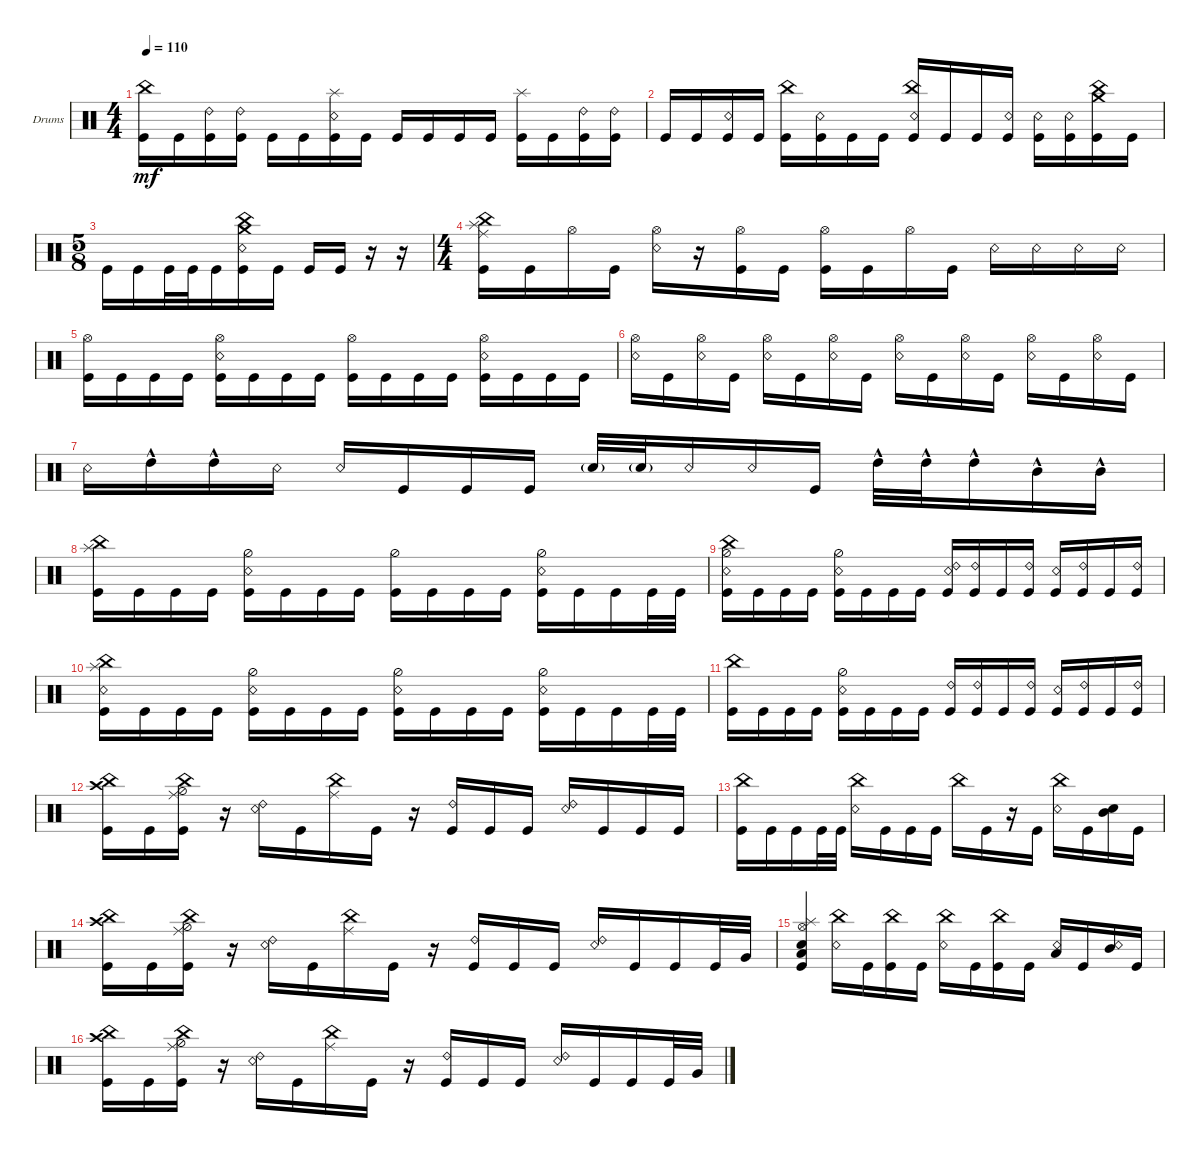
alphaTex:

\defaultSystemsLayout 4
\bracketExtendMode groupsimilarinstruments
\firstSystemTrackNameOrientation horizontal
\otherSystemsTrackNameOrientation horizontal
\track ("Drumkit" "Drums") {instrument percussion}
\staff {score}
\articulation defaults
\ts (4 4)
\tempo 110
\clef neutral
\ks c
("Kick (hit)" "China (hit)").16{dy mf} "Kick (hit)".16 ("Kick (hit)" "Ride (bell) 2").16 ("Kick (hit)" "Ride (bell) 2").16 "Kick (hit)".16 "Kick (hit)".16 ("Kick (hit)" "Snare (rim shot)" "Splash (hit)").16 "Kick (hit)".16 "Kick (hit)".16 "Kick (hit)".16 "Kick (hit)".16 "Kick (hit)".16 ("Kick (hit)" "Splash (hit)").16 "Kick (hit)".16 ("Kick (hit)" "Ride (bell) 2").16 ("Kick (hit)" "Ride (bell) 2").16 |
"Kick (hit)".16 "Kick (hit)".16 ("Kick (hit)" "Snare (rim shot)").16 "Kick (hit)".16 ("Kick (hit)" "China (hit)").16 ("Kick (hit)" "Snare (rim shot)").16 "Kick (hit)".16 "Kick (hit)".16 ("Kick (hit)" "China (hit)" "Snare (rim shot)").16 "Kick (hit)".16 "Kick (hit)".16 ("Kick (hit)" "Snare (rim shot)").16 ("Kick (hit)" "Snare (rim shot)").16 ("Kick (hit)" "Snare (rim shot)").16 ("Kick (hit)" "China (hit)" "Crash medium (hit)").16 "Kick (hit)".16 |
\ts (5 8)
"Kick (hit)".16 "Kick (hit)".16 "Kick (hit)".32 "Kick (hit)".32 "Kick (hit)".16 ("Kick (hit)" "China (hit)" "Crash medium (hit)" "Snare (rim shot)").16 "Kick (hit)".16 "Kick (hit)".16 "Kick (hit)".16 r.16 r.16 |
\ts (4 4)
("Kick (hit)" "Splash (hit)" "China (hit)" "Ride (middle)").16 "Kick (hit)".16 "Hi-Hat (open)".16 "Kick (hit)".16 ("Snare (rim shot)" "Hi-Hat (open)").16 r.16 ("Kick (hit)" "Hi-Hat (open)").16 "Kick (hit)".16 ("Kick (hit)" "Hi-Hat (open)").16 "Kick (hit)".16 "Hi-Hat (open)".16 "Kick (hit)".16 "Snare (rim shot)".16 "Snare (rim shot)".16 "Snare (rim shot)".16 "Snare (rim shot)".16 |
("Kick (hit)" "Hi-Hat (open)").16 "Kick (hit)".16 "Kick (hit)".16 "Kick (hit)".16 ("Kick (hit)" "Snare (rim shot)" "Hi-Hat (open)").16 "Kick (hit)".16 "Kick (hit)".16 "Kick (hit)".16 ("Kick (hit)" "Hi-Hat (open)").16 "Kick (hit)".16 "Kick (hit)".16 "Kick (hit)".16 ("Kick (hit)" "Snare (rim shot)" "Hi-Hat (open)").16 "Kick (hit)".16 "Kick (hit)".16 "Kick (hit)".16 |
\scale
0.503467 ("Snare (rim shot)" "Hi-Hat (open)").16 "Kick (hit)".16 ("Snare (rim shot)" "Hi-Hat (open)").16 "Kick (hit)".16 ("Snare (rim shot)" "Hi-Hat (open)").16 "Kick (hit)".16 ("Snare (rim shot)" "Hi-Hat (open)").16 "Kick (hit)".16 ("Snare (rim shot)" "Hi-Hat (open)").16 "Kick (hit)".16 ("Snare (rim shot)" "Hi-Hat (open)").16 "Kick (hit)".16 ("Snare (rim shot)" "Hi-Hat (open)").16 "Kick (hit)".16 ("Snare (rim shot)" "Hi-Hat (open)").16 "Kick (hit)".16 |
\scale
0.497502 "Snare (rim shot)".16 "High Tom (hit)"{hac}.16 "High Tom (hit)"{hac}.16 "Snare (rim shot)".16 "Snare (rim shot)".16 "Kick (hit)".16 "Kick (hit)".16 "Kick (hit)".16 "Snare (hit) 2"{g}.32 "Snare (hit) 2"{g}.32 "Snare (rim shot)".16 "Snare (rim shot)".16 "Kick (hit)".16 "High Tom (hit)"{hac}.32 "High Tom (hit)"{hac}.32 "High Tom (hit)"{hac}.16 "Mid Tom (hit)"{hac}.16 "Mid Tom (hit)"{hac}.16 |
("Kick (hit)" "China (hit)" "Splash (hit)").16 "Kick (hit)".16 "Kick (hit)".16 "Kick (hit)".16 ("Kick (hit)" "Snare (rim shot)" "Hi-Hat (half)").16 "Kick (hit)".16 "Kick (hit)".16 "Kick (hit)".16 ("Kick (hit)" "Hi-Hat (half)").16 "Kick (hit)".16 "Kick (hit)".16 "Kick (hit)".16 ("Kick (hit)" "Snare (rim shot)" "Hi-Hat (half)").16 "Kick (hit)".16 "Kick (hit)".16 "Kick (hit)".32 "Kick (hit)".32 |
("Kick (hit)" "Snare (rim shot)" "Hi-Hat (half)" "China (hit)").16 "Kick (hit)".16 "Kick (hit)".16 "Kick (hit)".16 ("Kick (hit)" "Snare (rim shot)" "Hi-Hat (half)").16 "Kick (hit)".16 "Kick (hit)".16 "Kick (hit)".16 ("Kick (hit)" "Snare (rim shot)" "Ride (bell) 2").16 ("Kick (hit)" "Ride (bell) 2").16 "Kick (hit)".16 ("Kick (hit)" "Ride (bell) 2").16 ("Kick (hit)" "Snare (rim shot)").16 ("Kick (hit)" "Ride (bell) 2").16 "Kick (hit)".16 ("Kick (hit)" "Ride (bell) 2").16 |
\scale
0.558733 ("Kick (hit)" "Snare (rim shot)" "China (hit)" "Splash (hit)").16 "Kick (hit)".16 "Kick (hit)".16 "Kick (hit)".16 ("Kick (hit)" "Snare (rim shot)" "Hi-Hat (half)").16 "Kick (hit)".16 "Kick (hit)".16 "Kick (hit)".16 ("Kick (hit)" "Snare (rim shot)" "Hi-Hat (half)").16 "Kick (hit)".16 "Kick (hit)".16 "Kick (hit)".16 ("Kick (hit)" "Snare (rim shot)" "Hi-Hat (half)").16 "Kick (hit)".16 "Kick (hit)".16 "Kick (hit)".32 "Kick (hit)".32 |
\scale
0.440967 ("Kick (hit)" "China (hit)").16 "Kick (hit)".16 "Kick (hit)".16 "Kick (hit)".16 ("Kick (hit)" "Snare (rim shot)" "Hi-Hat (half)").16 "Kick (hit)".16 "Kick (hit)".16 "Kick (hit)".16 ("Kick (hit)" "Ride (bell) 2").16 ("Kick (hit)" "Ride (bell) 2").16 "Kick (hit)".16 ("Kick (hit)" "Ride (bell) 2").16 ("Kick (hit)" "Snare (rim shot)").16 ("Kick (hit)" "Ride (bell) 2").16 "Kick (hit)".16 ("Kick (hit)" "Ride (bell) 2").16 |
("Crash high (hit)" "China (hit)" "Kick (hit)").16 "Kick (hit)".16 ("Kick (hit)" "Ride (middle)" "Hi-Hat (half)" "China (hit)").16 r.16 ("Snare (rim shot)" "Ride (bell) 2").16 "Kick (hit)".16 ("Ride (middle)" "China (hit)").16 "Kick (hit)".16 r.16 ("Kick (hit)" "Ride (bell) 2").16 "Kick (hit)".16 "Kick (hit)".16 ("Snare (rim shot)" "Ride (bell) 2").16 "Kick (hit)".16 "Kick (hit)".16 "Kick (hit)".16 |
("China (hit)" "Kick (hit)").16 "Kick (hit)".16 "Kick (hit)".16 "Kick (hit)".32 "Kick (hit)".32 ("Snare (rim shot)" "China (hit)").16 "Kick (hit)".16 "Kick (hit)".16 "Kick (hit)".16 "China (hit)".16 "Kick (hit)".16 r.16 "Kick (hit)".16 ("Snare (rim shot)" "China (hit)").16 "Kick (hit)".16 ("Mid Tom (hit)" "Snare (hit) 2").16 "Kick (hit)".16 |
("Crash high (hit)" "China (hit)" "Kick (hit)").16 "Kick (hit)".16 ("Kick (hit)" "Ride (middle)" "Hi-Hat (half)" "China (hit)").16 r.16 ("Snare (rim shot)" "Ride (bell) 2").16 "Kick (hit)".16 ("Ride (middle)" "China (hit)").16 "Kick (hit)".16 r.16 ("Kick (hit)" "Ride (bell) 2").16 "Kick (hit)".16 "Kick (hit)".16 ("Snare (rim shot)" "Ride (bell) 2").16 "Kick (hit)".16 "Kick (hit)".16 "Kick (hit)".32 "Very Low Tom (hit)".32 |
("Kick (hit)" "Snare (hit) 2" "Low Tom (hit)" "Splash (hit)" "Hi-Hat (open)").4 ("Snare (rim shot)" "China (hit)").16 "Kick (hit)".16 ("China (hit)" "Kick (hit)").16 "Kick (hit)".16 ("Snare (rim shot)" "China (hit)").16 "Kick (hit)".16 ("China (hit)" "Kick (hit)").16 "Kick (hit)".16 ("Snare (rim shot)" "Low Tom (hit)").16 "Kick (hit)".16 ("Mid Tom (hit)" "Snare (rim shot)").16 "Kick (hit)".16 |
("Crash high (hit)" "China (hit)" "Kick (hit)").16 "Kick (hit)".16 ("Kick (hit)" "Ride (middle)" "Hi-Hat (half)" "China (hit)").16 r.16 ("Snare (rim shot)" "Ride (bell) 2").16 "Kick (hit)".16 ("Ride (middle)" "China (hit)").16 "Kick (hit)".16 r.16 ("Kick (hit)" "Ride (bell) 2").16 "Kick (hit)".16 "Kick (hit)".16 ("Snare (rim shot)" "Ride (bell) 2").16 "Kick (hit)".16 "Kick (hit)".16 "Kick (hit)".32 "Very Low Tom (hit)".32
